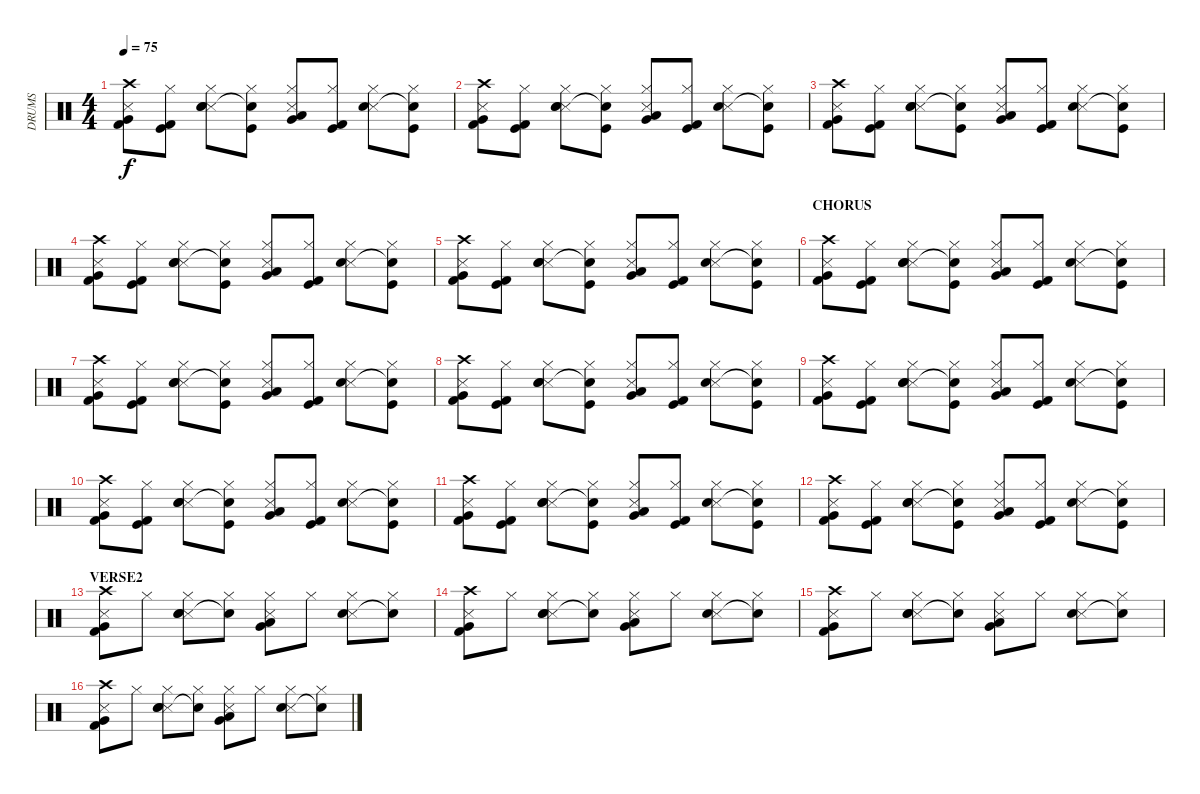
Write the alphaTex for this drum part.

\track ("DRUMS" "DRUMS") {instrument percussion}
\staff {score}
\articulation defaults
\ts (4 4)
\tempo 75
\clef neutral
\ks c
("Crash high (hit)" "Snare (side stick) 3" "Very Low Tom (hit)" "Kick (hit) 2").8{dy f} ("Hi-Hat (closed)" "Kick (hit)" "Kick (hit) 2").8 ("Hi-Hat (closed)" "Snare (side stick) 3" "Electric Snare (hit)" "Snare (hit) 2").8 ("Hi-Hat (closed)" "Kick (hit)" "Snare (hit)"{t}).8 ("Hi-Hat (closed)" "Snare (side stick) 3" "Very Low Tom (hit)" "Low Floor Tom (hit)").8 ("Hi-Hat (closed)" "Kick (hit)" "Kick (hit) 2").8 ("Hi-Hat (closed)" "Snare (side stick) 3" "Electric Snare (hit)").8 ("Hi-Hat (closed)" "Kick (hit)" "Snare (hit)"{t}).8 |
("Crash high (hit)" "Snare (side stick) 3" "Very Low Tom (hit)" "Kick (hit) 2").8 ("Hi-Hat (closed)" "Kick (hit)" "Kick (hit) 2").8 ("Hi-Hat (closed)" "Snare (side stick) 3" "Electric Snare (hit)" "Snare (hit) 2").8 ("Hi-Hat (closed)" "Kick (hit)" "Snare (hit)"{t}).8 ("Hi-Hat (closed)" "Snare (side stick) 3" "Very Low Tom (hit)" "Low Floor Tom (hit)").8 ("Hi-Hat (closed)" "Kick (hit)" "Kick (hit) 2").8 ("Hi-Hat (closed)" "Snare (side stick) 3" "Electric Snare (hit)").8 ("Hi-Hat (closed)" "Kick (hit)" "Snare (hit)"{t}).8 |
("Crash high (hit)" "Snare (side stick) 3" "Very Low Tom (hit)" "Kick (hit) 2").8 ("Hi-Hat (closed)" "Kick (hit)" "Kick (hit) 2").8 ("Hi-Hat (closed)" "Snare (side stick) 3" "Electric Snare (hit)" "Snare (hit) 2").8 ("Hi-Hat (closed)" "Kick (hit)" "Snare (hit)"{t}).8 ("Hi-Hat (closed)" "Snare (side stick) 3" "Very Low Tom (hit)" "Low Floor Tom (hit)").8 ("Hi-Hat (closed)" "Kick (hit)" "Kick (hit) 2").8 ("Hi-Hat (closed)" "Snare (side stick) 3" "Electric Snare (hit)").8 ("Hi-Hat (closed)" "Kick (hit)" "Snare (hit)"{t}).8 |
("Crash high (hit)" "Snare (side stick) 3" "Very Low Tom (hit)" "Kick (hit) 2").8 ("Hi-Hat (closed)" "Kick (hit)" "Kick (hit) 2").8 ("Hi-Hat (closed)" "Snare (side stick) 3" "Electric Snare (hit)" "Snare (hit) 2").8 ("Hi-Hat (closed)" "Kick (hit)" "Snare (hit)"{t}).8 ("Hi-Hat (closed)" "Snare (side stick) 3" "Very Low Tom (hit)" "Low Floor Tom (hit)").8 ("Hi-Hat (closed)" "Kick (hit)" "Kick (hit) 2").8 ("Hi-Hat (closed)" "Snare (side stick) 3" "Electric Snare (hit)").8 ("Hi-Hat (closed)" "Kick (hit)" "Snare (hit)"{t}).8 |
("Crash high (hit)" "Snare (side stick) 3" "Very Low Tom (hit)" "Kick (hit) 2").8 ("Hi-Hat (closed)" "Kick (hit)" "Kick (hit) 2").8 ("Hi-Hat (closed)" "Snare (side stick) 3" "Electric Snare (hit)" "Snare (hit) 2").8 ("Hi-Hat (closed)" "Kick (hit)" "Snare (hit)"{t}).8 ("Hi-Hat (closed)" "Snare (side stick) 3" "Very Low Tom (hit)" "Low Floor Tom (hit)").8 ("Hi-Hat (closed)" "Kick (hit)" "Kick (hit) 2").8 ("Hi-Hat (closed)" "Snare (side stick) 3" "Electric Snare (hit)").8 ("Hi-Hat (closed)" "Kick (hit)" "Snare (hit)"{t}).8 |
\section ("" "CHORUS")
("Crash high (hit)" "Snare (side stick) 3" "Very Low Tom (hit)" "Kick (hit) 2").8 ("Hi-Hat (closed)" "Kick (hit)" "Kick (hit) 2").8 ("Hi-Hat (closed)" "Snare (side stick) 3" "Electric Snare (hit)" "Snare (hit) 2").8 ("Hi-Hat (closed)" "Kick (hit)" "Snare (hit)"{t}).8 ("Hi-Hat (closed)" "Snare (side stick) 3" "Very Low Tom (hit)" "Low Floor Tom (hit)").8 ("Hi-Hat (closed)" "Kick (hit)" "Kick (hit) 2").8 ("Hi-Hat (closed)" "Snare (side stick) 3" "Electric Snare (hit)").8 ("Hi-Hat (closed)" "Kick (hit)" "Snare (hit)"{t}).8 |
("Crash high (hit)" "Snare (side stick) 3" "Very Low Tom (hit)" "Kick (hit) 2").8 ("Hi-Hat (closed)" "Kick (hit)" "Kick (hit) 2").8 ("Hi-Hat (closed)" "Snare (side stick) 3" "Electric Snare (hit)" "Snare (hit) 2").8 ("Hi-Hat (closed)" "Kick (hit)" "Snare (hit)"{t}).8 ("Hi-Hat (closed)" "Snare (side stick) 3" "Very Low Tom (hit)" "Low Floor Tom (hit)").8 ("Hi-Hat (closed)" "Kick (hit)" "Kick (hit) 2").8 ("Hi-Hat (closed)" "Snare (side stick) 3" "Electric Snare (hit)").8 ("Hi-Hat (closed)" "Kick (hit)" "Snare (hit)"{t}).8 |
("Crash high (hit)" "Snare (side stick) 3" "Very Low Tom (hit)" "Kick (hit) 2").8 ("Hi-Hat (closed)" "Kick (hit)" "Kick (hit) 2").8 ("Hi-Hat (closed)" "Snare (side stick) 3" "Electric Snare (hit)" "Snare (hit) 2").8 ("Hi-Hat (closed)" "Kick (hit)" "Snare (hit)"{t}).8 ("Hi-Hat (closed)" "Snare (side stick) 3" "Very Low Tom (hit)" "Low Floor Tom (hit)").8 ("Hi-Hat (closed)" "Kick (hit)" "Kick (hit) 2").8 ("Hi-Hat (closed)" "Snare (side stick) 3" "Electric Snare (hit)").8 ("Hi-Hat (closed)" "Kick (hit)" "Snare (hit)"{t}).8 |
("Crash high (hit)" "Snare (side stick) 3" "Very Low Tom (hit)" "Kick (hit) 2").8 ("Hi-Hat (closed)" "Kick (hit)" "Kick (hit) 2").8 ("Hi-Hat (closed)" "Snare (side stick) 3" "Electric Snare (hit)" "Snare (hit) 2").8 ("Hi-Hat (closed)" "Kick (hit)" "Snare (hit)"{t}).8 ("Hi-Hat (closed)" "Snare (side stick) 3" "Very Low Tom (hit)" "Low Floor Tom (hit)").8 ("Hi-Hat (closed)" "Kick (hit)" "Kick (hit) 2").8 ("Hi-Hat (closed)" "Snare (side stick) 3" "Electric Snare (hit)").8 ("Hi-Hat (closed)" "Kick (hit)" "Snare (hit)"{t}).8 |
("Crash high (hit)" "Snare (side stick) 3" "Very Low Tom (hit)" "Kick (hit) 2").8 ("Hi-Hat (closed)" "Kick (hit)" "Kick (hit) 2").8 ("Hi-Hat (closed)" "Snare (side stick) 3" "Electric Snare (hit)" "Snare (hit) 2").8 ("Hi-Hat (closed)" "Kick (hit)" "Snare (hit)"{t}).8 ("Hi-Hat (closed)" "Snare (side stick) 3" "Very Low Tom (hit)" "Low Floor Tom (hit)").8 ("Hi-Hat (closed)" "Kick (hit)" "Kick (hit) 2").8 ("Hi-Hat (closed)" "Snare (side stick) 3" "Electric Snare (hit)").8 ("Hi-Hat (closed)" "Kick (hit)" "Snare (hit)"{t}).8 |
("Crash high (hit)" "Snare (side stick) 3" "Very Low Tom (hit)" "Kick (hit) 2").8 ("Hi-Hat (closed)" "Kick (hit)" "Kick (hit) 2").8 ("Hi-Hat (closed)" "Snare (side stick) 3" "Electric Snare (hit)" "Snare (hit) 2").8 ("Hi-Hat (closed)" "Kick (hit)" "Snare (hit)"{t}).8 ("Hi-Hat (closed)" "Snare (side stick) 3" "Very Low Tom (hit)" "Low Floor Tom (hit)").8 ("Hi-Hat (closed)" "Kick (hit)" "Kick (hit) 2").8 ("Hi-Hat (closed)" "Snare (side stick) 3" "Electric Snare (hit)").8 ("Hi-Hat (closed)" "Kick (hit)" "Snare (hit)"{t}).8 |
("Crash high (hit)" "Snare (side stick) 3" "Very Low Tom (hit)" "Kick (hit) 2").8 ("Hi-Hat (closed)" "Kick (hit)" "Kick (hit) 2").8 ("Hi-Hat (closed)" "Snare (side stick) 3" "Electric Snare (hit)" "Snare (hit) 2").8 ("Hi-Hat (closed)" "Kick (hit)" "Snare (hit)"{t}).8 ("Hi-Hat (closed)" "Snare (side stick) 3" "Very Low Tom (hit)" "Low Floor Tom (hit)").8 ("Hi-Hat (closed)" "Kick (hit)" "Kick (hit) 2").8 ("Hi-Hat (closed)" "Snare (side stick) 3" "Electric Snare (hit)").8 ("Hi-Hat (closed)" "Kick (hit)" "Snare (hit)"{t}).8 |
\section ("" "VERSE2")
("Crash high (hit)" "Snare (side stick) 3" "Very Low Tom (hit)" "Kick (hit) 2").8 "Hi-Hat (closed)".8 ("Hi-Hat (closed)" "Snare (side stick) 3" "Electric Snare (hit)" "Snare (hit) 2").8 ("Hi-Hat (closed)" "Snare (hit)"{t}).8 ("Hi-Hat (closed)" "Snare (side stick) 3" "Very Low Tom (hit)" "Low Floor Tom (hit)").8 "Hi-Hat (closed)".8 ("Hi-Hat (closed)" "Snare (side stick) 3" "Electric Snare (hit)").8 ("Hi-Hat (closed)" "Snare (hit)"{t}).8 |
("Crash high (hit)" "Snare (side stick) 3" "Very Low Tom (hit)" "Kick (hit) 2").8 "Hi-Hat (closed)".8 ("Hi-Hat (closed)" "Snare (side stick) 3" "Electric Snare (hit)" "Snare (hit) 2").8 ("Hi-Hat (closed)" "Snare (hit)"{t}).8 ("Hi-Hat (closed)" "Snare (side stick) 3" "Very Low Tom (hit)" "Low Floor Tom (hit)").8 "Hi-Hat (closed)".8 ("Hi-Hat (closed)" "Snare (side stick) 3" "Electric Snare (hit)").8 ("Hi-Hat (closed)" "Snare (hit)"{t}).8 |
("Crash high (hit)" "Snare (side stick) 3" "Very Low Tom (hit)" "Kick (hit) 2").8 "Hi-Hat (closed)".8 ("Hi-Hat (closed)" "Snare (side stick) 3" "Electric Snare (hit)" "Snare (hit) 2").8 ("Hi-Hat (closed)" "Snare (hit)"{t}).8 ("Hi-Hat (closed)" "Snare (side stick) 3" "Very Low Tom (hit)" "Low Floor Tom (hit)").8 "Hi-Hat (closed)".8 ("Hi-Hat (closed)" "Snare (side stick) 3" "Electric Snare (hit)").8 ("Hi-Hat (closed)" "Snare (hit)"{t}).8 |
("Crash high (hit)" "Snare (side stick) 3" "Very Low Tom (hit)" "Kick (hit) 2").8 "Hi-Hat (closed)".8 ("Hi-Hat (closed)" "Snare (side stick) 3" "Electric Snare (hit)" "Snare (hit) 2").8 ("Hi-Hat (closed)" "Snare (hit)"{t}).8 ("Hi-Hat (closed)" "Snare (side stick) 3" "Very Low Tom (hit)" "Low Floor Tom (hit)").8 "Hi-Hat (closed)".8 ("Hi-Hat (closed)" "Snare (side stick) 3" "Electric Snare (hit)").8 ("Hi-Hat (closed)" "Snare (hit)"{t}).8
